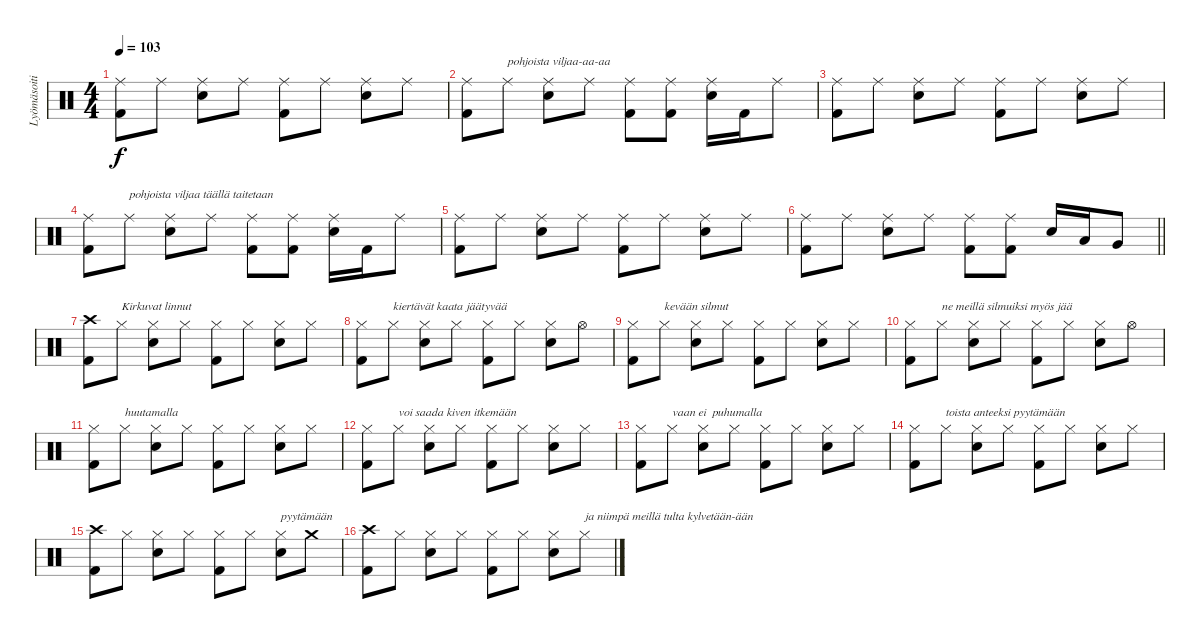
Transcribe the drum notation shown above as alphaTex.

\track ("Lyömäsoitin" "Lyömäsoiti") {instrument percussion}
\staff {score}
\articulation defaults
\ts (4 4)
\tempo 103
\clef neutral
\ks c
("Ride (middle)" "Kick (hit) 2").8{dy f} "Ride (middle)".8 ("Ride (middle)" "Snare (hit) 2").8 "Ride (middle)".8 ("Ride (middle)" "Kick (hit) 2").8 "Ride (middle)".8 ("Ride (middle)" "Snare (hit) 2").8 "Ride (middle)".8 |
("Ride (middle)" "Kick (hit) 2").8 "Ride (middle)".8{txt "pohjoista viljaa-aa-aa"} ("Ride (middle)" "Snare (hit) 2").8 "Ride (middle)".8 ("Ride (middle)" "Kick (hit) 2").8 ("Ride (middle)" "Kick (hit) 2").8 ("Ride (middle)" "Snare (hit) 2").16 "Kick (hit) 2".16 "Ride (middle)".8 |
("Ride (middle)" "Kick (hit) 2").8 "Ride (middle)".8 ("Ride (middle)" "Snare (hit) 2").8 "Ride (middle)".8 ("Ride (middle)" "Kick (hit) 2").8 "Ride (middle)".8 ("Ride (middle)" "Snare (hit) 2").8 "Ride (middle)".8 |
("Ride (middle)" "Kick (hit) 2").8 "Ride (middle)".8{txt "pohjoista viljaa täällä taitetaan"} ("Ride (middle)" "Snare (hit) 2").8 "Ride (middle)".8 ("Ride (middle)" "Kick (hit) 2").8 ("Ride (middle)" "Kick (hit) 2").8 ("Ride (middle)" "Snare (hit) 2").16 "Kick (hit) 2".16 "Ride (middle)".8 |
("Ride (middle)" "Kick (hit) 2").8 "Ride (middle)".8 ("Ride (middle)" "Snare (hit) 2").8 "Ride (middle)".8 ("Ride (middle)" "Kick (hit) 2").8 "Ride (middle)".8 ("Ride (middle)" "Snare (hit) 2").8 "Ride (middle)".8 |
\barLineRight lightlight
("Ride (middle)" "Kick (hit) 2").8 "Ride (middle)".8 ("Ride (middle)" "Snare (hit) 2").8 "Ride (middle)".8 ("Ride (middle)" "Kick (hit) 2").8 ("Ride (middle)" "Kick (hit) 2").8 "Snare (hit) 2".16 "Low Tom (hit)".16 "Very Low Tom (hit)".8 |
("Crash high (hit)" "Kick (hit) 2").8 "Hi-Hat (closed)".8{txt "Kirkuvat linnut"} ("Hi-Hat (closed)" "Snare (hit) 2").8 "Hi-Hat (closed)".8 ("Hi-Hat (closed)" "Kick (hit) 2").8 "Hi-Hat (closed)".8 ("Hi-Hat (closed)" "Snare (hit) 2").8 "Hi-Hat (closed)".8 |
("Hi-Hat (closed)" "Kick (hit) 2").8 "Hi-Hat (closed)".8{txt "kiertävät kaata jäätyvää"} ("Hi-Hat (closed)" "Snare (hit) 2").8 "Hi-Hat (closed)".8 ("Hi-Hat (closed)" "Kick (hit) 2").8 "Hi-Hat (closed)".8 ("Hi-Hat (closed)" "Snare (hit) 2").8 "Hi-Hat (open)".8 |
("Hi-Hat (closed)" "Kick (hit) 2").8 "Hi-Hat (closed)".8{txt "kevään silmut"} ("Hi-Hat (closed)" "Snare (hit) 2").8 "Hi-Hat (closed)".8 ("Hi-Hat (closed)" "Kick (hit) 2").8 "Hi-Hat (closed)".8 ("Hi-Hat (closed)" "Snare (hit) 2").8 "Hi-Hat (closed)".8 |
("Hi-Hat (closed)" "Kick (hit) 2").8 "Hi-Hat (closed)".8{txt "ne meillä silmuiksi myös jää"} ("Hi-Hat (closed)" "Snare (hit) 2").8 "Hi-Hat (closed)".8 ("Hi-Hat (closed)" "Kick (hit) 2").8 "Hi-Hat (closed)".8 ("Hi-Hat (closed)" "Snare (hit) 2").8 "Hi-Hat (open)".8 |
("Hi-Hat (closed)" "Kick (hit) 2").8 "Hi-Hat (closed)".8{txt "huutamalla"} ("Hi-Hat (closed)" "Snare (hit) 2").8 "Hi-Hat (closed)".8 ("Hi-Hat (closed)" "Kick (hit) 2").8 "Hi-Hat (closed)".8 ("Hi-Hat (closed)" "Snare (hit) 2").8 "Hi-Hat (closed)".8 |
("Hi-Hat (closed)" "Kick (hit) 2").8 "Hi-Hat (closed)".8{txt "voi saada kiven itkemään "} ("Hi-Hat (closed)" "Snare (hit) 2").8 "Hi-Hat (closed)".8 ("Hi-Hat (closed)" "Kick (hit) 2").8 "Hi-Hat (closed)".8 ("Hi-Hat (closed)" "Snare (hit) 2").8 "Hi-Hat (closed)".8 |
("Hi-Hat (closed)" "Kick (hit) 2").8 "Hi-Hat (closed)".8{txt "vaan ei  puhumalla"} ("Hi-Hat (closed)" "Snare (hit) 2").8 "Hi-Hat (closed)".8 ("Hi-Hat (closed)" "Kick (hit) 2").8 "Hi-Hat (closed)".8 ("Hi-Hat (closed)" "Snare (hit) 2").8 "Hi-Hat (closed)".8 |
("Hi-Hat (closed)" "Kick (hit) 2").8 "Hi-Hat (closed)".8{txt "toista anteeksi pyytämään"} ("Hi-Hat (closed)" "Snare (hit) 2").8 "Hi-Hat (closed)".8 ("Hi-Hat (closed)" "Kick (hit) 2").8 "Hi-Hat (closed)".8 ("Hi-Hat (closed)" "Snare (hit) 2").8 "Hi-Hat (closed)".8 |
("Crash high (hit)" "Kick (hit) 2").8 "Hi-Hat (closed)".8 ("Hi-Hat (closed)" "Snare (hit) 2").8 "Hi-Hat (closed)".8 ("Hi-Hat (closed)" "Kick (hit) 2").8 "Hi-Hat (closed)".8 ("Hi-Hat (closed)" "Snare (hit) 2").8{txt "pyytämään"} "Crash medium (hit)".8 |
("Crash high (hit)" "Kick (hit) 2").8 "Hi-Hat (closed)".8 ("Hi-Hat (closed)" "Snare (hit) 2").8 "Hi-Hat (closed)".8 ("Hi-Hat (closed)" "Kick (hit) 2").8 "Hi-Hat (closed)".8 ("Hi-Hat (closed)" "Snare (hit) 2").8 "Hi-Hat (closed)".8{txt "ja niimpä meillä tulta kylvetään-ään"}
